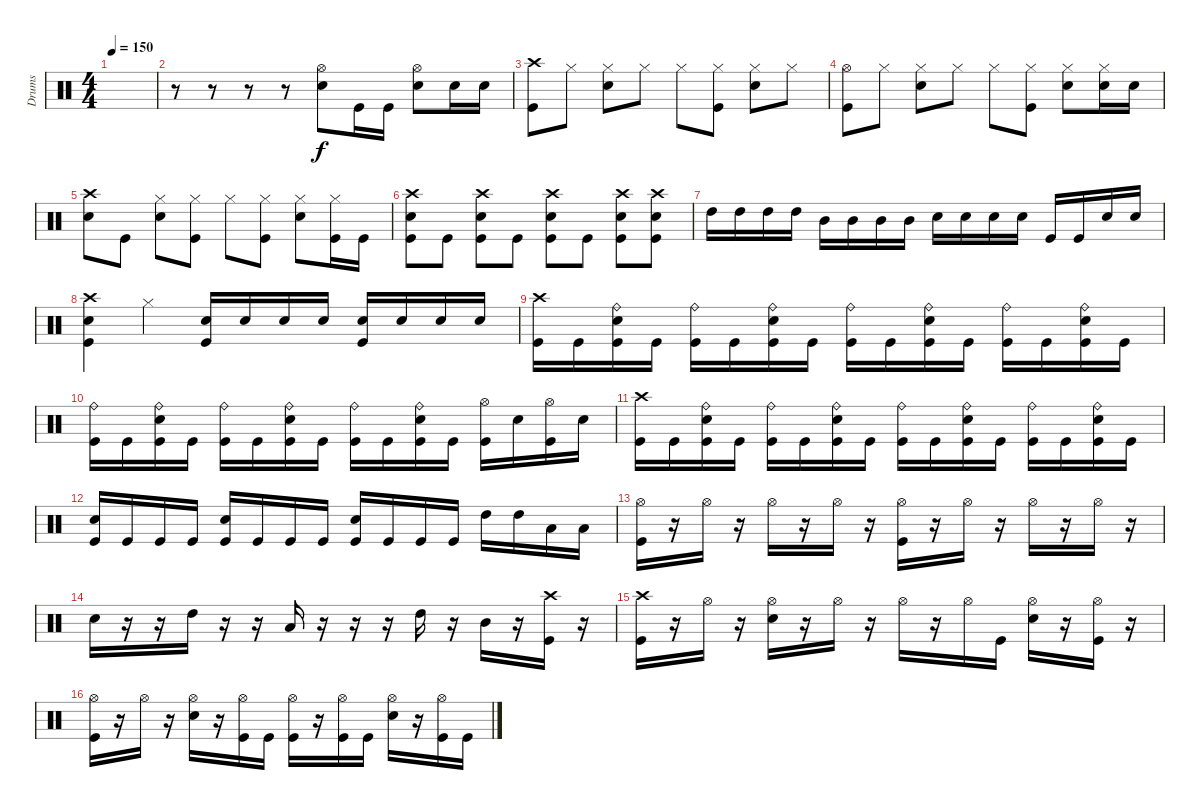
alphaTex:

\track ("Drums" "Drums") {instrument percussion}
\staff {score}
\articulation defaults
\ts (4 4)
\tempo 150
\clef neutral
\ks c
|
r.8 r.8 r.8 r.8 ("Hi-Hat (open)" "Electric Snare (hit)").8 "Kick (hit)".16 "Kick (hit)".16 ("Hi-Hat (open)" "Electric Snare (hit)").8 "Electric Snare (hit)".16 "Electric Snare (hit)".16 |
("Crash high (hit)" "Kick (hit)").8 "Hi-Hat (closed)".8 ("Hi-Hat (closed)" "Electric Snare (hit)").8 "Hi-Hat (closed)".8 "Hi-Hat (closed)".8 ("Hi-Hat (closed)" "Kick (hit)").8 ("Hi-Hat (closed)" "Electric Snare (hit)").8 "Hi-Hat (closed)".8 |
("Hi-Hat (open)" "Kick (hit)").8 "Hi-Hat (closed)".8 ("Hi-Hat (closed)" "Electric Snare (hit)").8 "Hi-Hat (closed)".8 "Hi-Hat (closed)".8 ("Hi-Hat (closed)" "Kick (hit)").8 ("Hi-Hat (closed)" "Electric Snare (hit)").8 ("Hi-Hat (closed)" "Electric Snare (hit)").16 "Electric Snare (hit)".16 |
("Crash high (hit)" "Electric Snare (hit)").8 "Kick (hit)".8 ("Hi-Hat (closed)" "Electric Snare (hit)").8 ("Hi-Hat (closed)" "Kick (hit)").8 "Hi-Hat (closed)".8 ("Hi-Hat (closed)" "Kick (hit)").8 ("Hi-Hat (closed)" "Electric Snare (hit)").8 ("Hi-Hat (closed)" "Kick (hit)").16 "Kick (hit)".16 |
("Crash high (hit)" "Electric Snare (hit)" "Kick (hit)").8 "Kick (hit)".8 ("Crash high (hit)" "Electric Snare (hit)" "Kick (hit)").8 "Kick (hit)".8 ("Crash high (hit)" "Electric Snare (hit)" "Kick (hit)").8 "Kick (hit)".8 ("Crash high (hit)" "Electric Snare (hit)" "Kick (hit)").8 ("Crash high (hit)" "Electric Snare (hit)" "Kick (hit)").8 |
"High Tom (hit)".16 "High Tom (hit)".16 "High Tom (hit)".16 "High Tom (hit)".16 "Mid Tom (hit)".16 "Mid Tom (hit)".16 "Mid Tom (hit)".16 "Mid Tom (hit)".16 "Electric Snare (hit)".16 "Electric Snare (hit)".16 "Electric Snare (hit)".16 "Electric Snare (hit)".16 "Kick (hit)".16 "Kick (hit)".16 "Electric Snare (hit)".16 "Electric Snare (hit)".16 |
("Crash high (hit)" "Kick (hit)" "Electric Snare (hit)").4 "Hi-Hat (closed)".4 ("Electric Snare (hit)" "Kick (hit)").16 "Electric Snare (hit)".16 "Electric Snare (hit)".16 "Electric Snare (hit)".16 ("Electric Snare (hit)" "Kick (hit)").16 "Electric Snare (hit)".16 "Electric Snare (hit)".16 "Electric Snare (hit)".16 |
("Crash high (hit)" "Kick (hit)").16 "Kick (hit)".16 ("Ride (bell)" "Electric Snare (hit)" "Kick (hit)").16 "Kick (hit)".16 ("Ride (bell)" "Kick (hit)").16 "Kick (hit)".16 ("Ride (bell)" "Electric Snare (hit)" "Kick (hit)").16 "Kick (hit)".16 ("Ride (bell)" "Kick (hit)").16 "Kick (hit)".16 ("Ride (bell)" "Electric Snare (hit)" "Kick (hit)").16 "Kick (hit)".16 ("Ride (bell)" "Kick (hit)").16 "Kick (hit)".16 ("Ride (bell)" "Electric Snare (hit)" "Kick (hit)").16 "Kick (hit)".16 |
("Ride (bell)" "Kick (hit)").16 "Kick (hit)".16 ("Ride (bell)" "Electric Snare (hit)" "Kick (hit)").16 "Kick (hit)".16 ("Ride (bell)" "Kick (hit)").16 "Kick (hit)".16 ("Ride (bell)" "Electric Snare (hit)" "Kick (hit)").16 "Kick (hit)".16 ("Ride (bell)" "Kick (hit)").16 "Kick (hit)".16 ("Ride (bell)" "Electric Snare (hit)" "Kick (hit)").16 "Kick (hit)".16 ("Hi-Hat (open)" "Kick (hit)").16 "Electric Snare (hit)".16 ("Hi-Hat (open)" "Kick (hit)").16 "Electric Snare (hit)".16 |
("Crash high (hit)" "Kick (hit)").16 "Kick (hit)".16 ("Ride (bell)" "Electric Snare (hit)" "Kick (hit)").16 "Kick (hit)".16 ("Ride (bell)" "Kick (hit)").16 "Kick (hit)".16 ("Ride (bell)" "Electric Snare (hit)" "Kick (hit)").16 "Kick (hit)".16 ("Ride (bell)" "Kick (hit)").16 "Kick (hit)".16 ("Ride (bell)" "Electric Snare (hit)" "Kick (hit)").16 "Kick (hit)".16 ("Ride (bell)" "Kick (hit)").16 "Kick (hit)".16 ("Ride (bell)" "Electric Snare (hit)" "Kick (hit)").16 "Kick (hit)".16 |
("Electric Snare (hit)" "Kick (hit)").16 "Kick (hit)".16 "Kick (hit)".16 "Kick (hit)".16 ("Electric Snare (hit)" "Kick (hit)").16 "Kick (hit)".16 "Kick (hit)".16 "Kick (hit)".16 ("Electric Snare (hit)" "Kick (hit)").16 "Kick (hit)".16 "Kick (hit)".16 "Kick (hit)".16 "High Tom (hit)".16 "High Tom (hit)".16 "Low Tom (hit)".16 "Low Tom (hit)".16 |
("Hi-Hat (open)" "Kick (hit)").16 r.16 "Hi-Hat (open)".16 r.16 "Hi-Hat (open)".16 r.16 "Hi-Hat (open)".16 r.16 ("Hi-Hat (open)" "Kick (hit)").16 r.16 "Hi-Hat (open)".16 r.16 "Hi-Hat (open)".16 r.16 "Hi-Hat (open)".16 r.16 |
"Electric Snare (hit)".16 r.16 r.16 "High Tom (hit)".16 r.16 r.16 "Low Tom (hit)".16 r.16 r.16 r.16 "High Tom (hit)".16 r.16 "Mid Tom (hit)".16 r.16 ("Crash high (hit)" "Kick (hit)").16 r.16 |
("Crash high (hit)" "Kick (hit)").16 r.16 "Hi-Hat (open)".16 r.16 ("Hi-Hat (open)" "Electric Snare (hit)").16 r.16 "Hi-Hat (open)".16 r.16 "Hi-Hat (open)".16 r.16 "Hi-Hat (open)".16 "Kick (hit)".16 ("Hi-Hat (open)" "Electric Snare (hit)").16 r.16 ("Hi-Hat (open)" "Kick (hit)").16 r.16 |
("Hi-Hat (open)" "Kick (hit)").16 r.16 "Hi-Hat (open)".16 r.16 ("Hi-Hat (open)" "Electric Snare (hit)").16 r.16 ("Hi-Hat (open)" "Kick (hit)").16 "Kick (hit)".16 ("Hi-Hat (open)" "Kick (hit)").16 r.16 ("Hi-Hat (open)" "Kick (hit)").16 "Kick (hit)".16 ("Hi-Hat (open)" "Electric Snare (hit)").16 r.16 ("Hi-Hat (open)" "Kick (hit)").16 "Kick (hit)".16
